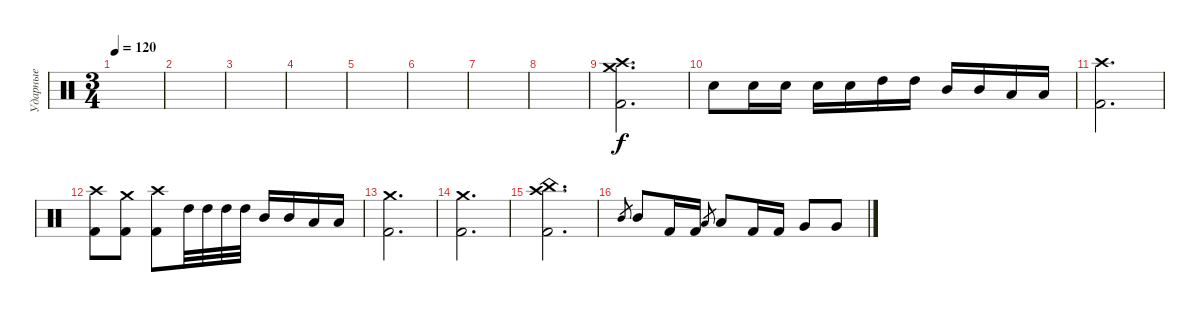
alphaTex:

\track ("Ударные" "Ударные") {instrument percussion}
\staff {score}
\articulation defaults
\ts (3 4)
\tempo 120
\clef neutral
\ks c
|
|
|
|
|
|
|
|
("Kick (hit) 2" "Crash high (hit)" "Crash medium (hit)").2{d} |
"Electric Snare (hit)".8 "Electric Snare (hit)".16 "Electric Snare (hit)".16 "Electric Snare (hit)".16 "Electric Snare (hit)".16 "High Tom (hit)".16 "High Tom (hit)".16 "Mid Tom (hit)".16 "Mid Tom (hit)".16 "Low Tom (hit)".16 "Low Tom (hit)".16 |
("Kick (hit) 2" "Crash high (hit)").2{d} |
("Kick (hit) 2" "Crash high (hit)").8 ("Kick (hit) 2" "Crash medium (hit)").8 ("Kick (hit) 2" "Crash high (hit)").8 "High Tom (hit)".32 "High Tom (hit)".32 "High Tom (hit)".32 "High Tom (hit)".32 "Mid Tom (hit)".16 "Mid Tom (hit)".16 "Low Tom (hit)".16 "Low Tom (hit)".16 |
("Kick (hit) 2" "Crash medium (hit)").2{d} |
("Kick (hit) 2" "Crash medium (hit)").2{d} |
("Kick (hit) 2" "Crash high (hit)" "China (hit)").2{d} |
"Mid Tom (hit)".8{gr} "Mid Tom (hit)".8 "Kick (hit) 2".16 "Kick (hit) 2".16 "Low Tom (hit)".8{gr} "Low Tom (hit)".8 "Kick (hit) 2".16 "Kick (hit) 2".16 "Very Low Tom (hit)".8 "Very Low Tom (hit)".8
